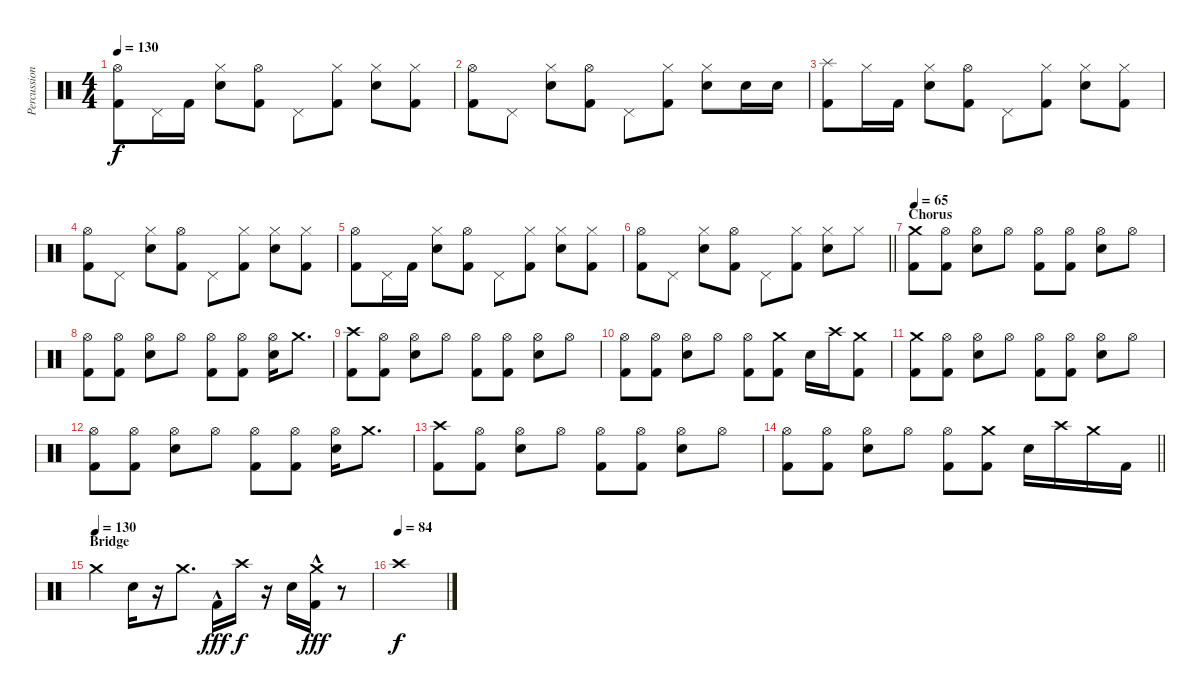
\track ("Percussion" "Percussion") {instrument percussion}
\staff {score}
\articulation defaults
\ts (4 4)
\tempo 130
\clef neutral
\ks c
("Hi-Hat (open)" "Kick (hit) 2").8{dy f} "Pedal Hi-Hat (hit)".16 "Kick (hit) 2".16 ("Hi-Hat (closed)" "Electric Snare (hit)").8 ("Hi-Hat (open)" "Kick (hit) 2").8 "Pedal Hi-Hat (hit)".8 ("Hi-Hat (closed)" "Kick (hit) 2").8 ("Hi-Hat (closed)" "Electric Snare (hit)").8 ("Hi-Hat (closed)" "Kick (hit) 2").8 |
("Hi-Hat (open)" "Kick (hit) 2").8 "Pedal Hi-Hat (hit)".8 ("Hi-Hat (closed)" "Electric Snare (hit)").8 ("Hi-Hat (open)" "Kick (hit) 2").8 "Pedal Hi-Hat (hit)".8 ("Hi-Hat (closed)" "Kick (hit) 2").8 ("Hi-Hat (closed)" "Electric Snare (hit)").8 "Electric Snare (hit)".16 "Electric Snare (hit)".16 |
("Splash (hit)" "Kick (hit) 2").8 "Hi-Hat (closed)".16 "Kick (hit) 2".16 ("Hi-Hat (closed)" "Electric Snare (hit)").8 ("Hi-Hat (open)" "Kick (hit) 2").8 "Pedal Hi-Hat (hit)".8 ("Hi-Hat (closed)" "Kick (hit) 2").8 ("Hi-Hat (closed)" "Electric Snare (hit)").8 ("Hi-Hat (closed)" "Kick (hit) 2").8 |
("Hi-Hat (open)" "Kick (hit) 2").8 "Pedal Hi-Hat (hit)".8 ("Hi-Hat (closed)" "Electric Snare (hit)").8 ("Hi-Hat (open)" "Kick (hit) 2").8 "Pedal Hi-Hat (hit)".8 ("Hi-Hat (closed)" "Kick (hit) 2").8 ("Hi-Hat (closed)" "Electric Snare (hit)").8 ("Hi-Hat (closed)" "Kick (hit) 2").8 |
("Hi-Hat (open)" "Kick (hit) 2").8 "Pedal Hi-Hat (hit)".16 "Kick (hit) 2".16 ("Hi-Hat (closed)" "Electric Snare (hit)").8 ("Hi-Hat (open)" "Kick (hit) 2").8 "Pedal Hi-Hat (hit)".8 ("Hi-Hat (closed)" "Kick (hit) 2").8 ("Hi-Hat (closed)" "Electric Snare (hit)").8 ("Hi-Hat (closed)" "Kick (hit) 2").8 |
\barLineRight lightlight
("Hi-Hat (open)" "Kick (hit) 2").8 "Pedal Hi-Hat (hit)".8 ("Hi-Hat (closed)" "Electric Snare (hit)").8 ("Hi-Hat (open)" "Kick (hit) 2").8 "Pedal Hi-Hat (hit)".8 ("Hi-Hat (closed)" "Kick (hit) 2").8 ("Hi-Hat (closed)" "Electric Snare (hit)").8 "Hi-Hat (closed)".8 |
\section ("" "Chorus")
\tempo 65
("Crash medium (hit)" "Kick (hit) 2").8 ("Hi-Hat (open)" "Kick (hit) 2").8 ("Hi-Hat (open)" "Electric Snare (hit)").8 "Hi-Hat (open)".8 ("Hi-Hat (open)" "Kick (hit) 2").8 ("Hi-Hat (open)" "Kick (hit) 2").8 ("Hi-Hat (open)" "Electric Snare (hit)").8 "Hi-Hat (open)".8 |
("Hi-Hat (open)" "Kick (hit) 2").8 ("Hi-Hat (open)" "Kick (hit) 2").8 ("Hi-Hat (open)" "Electric Snare (hit)").8 "Hi-Hat (open)".8 ("Hi-Hat (open)" "Kick (hit) 2").8 ("Hi-Hat (open)" "Kick (hit) 2").8 ("Hi-Hat (open)" "Electric Snare (hit)").16 "Crash medium (hit)".8{d} |
("Crash high (hit)" "Kick (hit) 2").8 ("Hi-Hat (open)" "Kick (hit) 2").8 ("Hi-Hat (open)" "Electric Snare (hit)").8 "Hi-Hat (open)".8 ("Hi-Hat (open)" "Kick (hit) 2").8 ("Hi-Hat (open)" "Kick (hit) 2").8 ("Hi-Hat (open)" "Electric Snare (hit)").8 "Hi-Hat (open)".8 |
("Hi-Hat (open)" "Kick (hit) 2").8 ("Hi-Hat (open)" "Kick (hit) 2").8 ("Hi-Hat (open)" "Electric Snare (hit)").8 "Hi-Hat (open)".8 ("Hi-Hat (open)" "Kick (hit) 2").8 ("Crash medium (hit)" "Kick (hit) 2").8 "Electric Snare (hit)".16 "Crash high (hit)".16 ("Crash medium (hit)" "Kick (hit) 2").8 |
("Crash medium (hit)" "Kick (hit) 2").8 ("Hi-Hat (open)" "Kick (hit) 2").8 ("Hi-Hat (open)" "Electric Snare (hit)").8 "Hi-Hat (open)".8 ("Hi-Hat (open)" "Kick (hit) 2").8 ("Hi-Hat (open)" "Kick (hit) 2").8 ("Hi-Hat (open)" "Electric Snare (hit)").8 "Hi-Hat (open)".8 |
("Hi-Hat (open)" "Kick (hit) 2").8 ("Hi-Hat (open)" "Kick (hit) 2").8 ("Hi-Hat (open)" "Electric Snare (hit)").8 "Hi-Hat (open)".8 ("Hi-Hat (open)" "Kick (hit) 2").8 ("Hi-Hat (open)" "Kick (hit) 2").8 ("Hi-Hat (open)" "Electric Snare (hit)").16 "Crash medium (hit)".8{d} |
("Crash high (hit)" "Kick (hit) 2").8 ("Hi-Hat (open)" "Kick (hit) 2").8 ("Hi-Hat (open)" "Electric Snare (hit)").8 "Hi-Hat (open)".8 ("Hi-Hat (open)" "Kick (hit) 2").8 ("Hi-Hat (open)" "Kick (hit) 2").8 ("Hi-Hat (open)" "Electric Snare (hit)").8 "Hi-Hat (open)".8 |
\barLineRight lightlight
("Hi-Hat (open)" "Kick (hit) 2").8 ("Hi-Hat (open)" "Kick (hit) 2").8 ("Hi-Hat (open)" "Electric Snare (hit)").8 "Hi-Hat (open)".8 ("Hi-Hat (open)" "Kick (hit) 2").8 ("Crash medium (hit)" "Kick (hit) 2").8 "Electric Snare (hit)".16 "Crash high (hit)".16 "Crash medium (hit)".16 "Kick (hit) 2".16 |
\section ("" "Bridge")
\tempo (130)
"Crash medium (hit)".4 "Electric Snare (hit)".16 r.16 "Crash medium (hit)".8{d} "Kick (hit) 2"{hac}.16{dy fff} "Crash high (hit)".16{dy f} r.16 "Electric Snare (hit)".16 ("Crash medium (hit)" "Kick (hit) 2"{hac}).16{dy fff} r.8 |
\tempo (84)
"Crash high (hit)".1{dy f}
